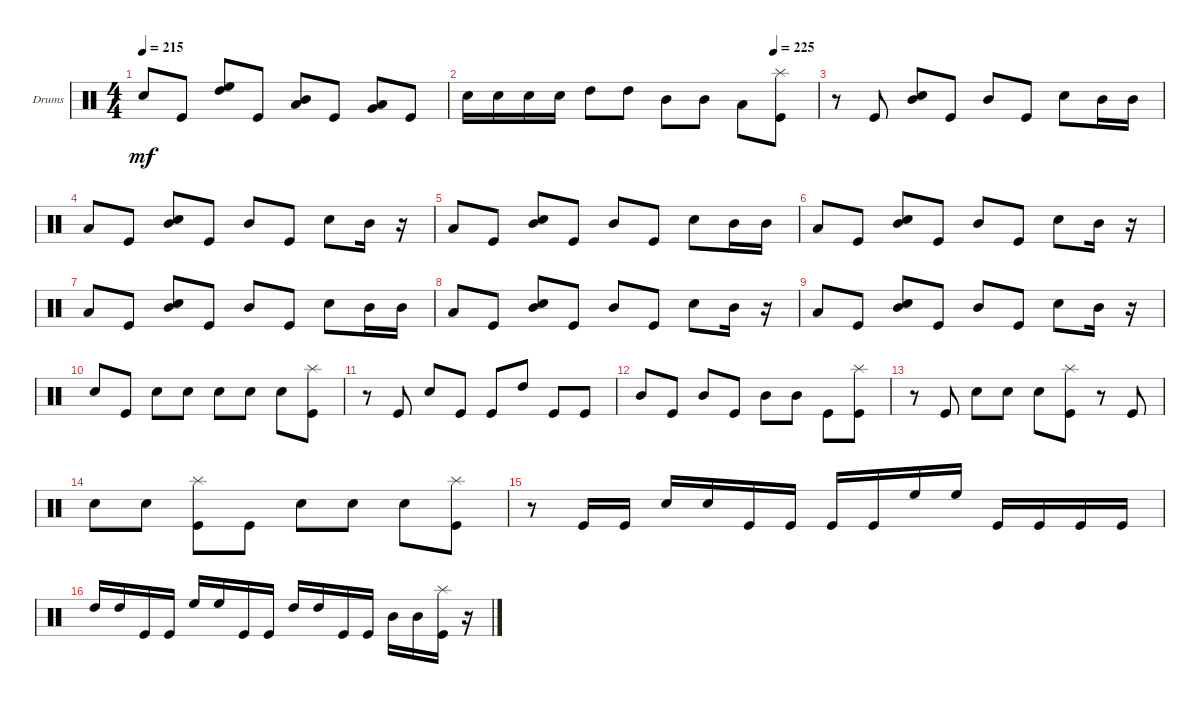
\bracketExtendMode groupsimilarinstruments
\firstSystemTrackNameOrientation horizontal
\otherSystemsTrackNameOrientation horizontal
\track ("Drumkit" "Drums") {instrument percussion}
\staff {score}
\articulation defaults
\ts (4 4)
\tempo 215
\clef neutral
\ks c "Snare (hit) 2".8{dy mf} "Kick (hit)".8
("High Tom (hit)" "High Floor Tom (hit)").8 "Kick (hit)".8 ("Mid Tom (hit)" "Low Tom (hit)").8 "Kick (hit)".8 ("Very Low Tom (hit)" "Low Tom (hit)").8 "Kick (hit)".8 |
\tempo (225 0.875)
"Snare (hit) 2".16 "Snare (hit) 2".16 "Snare (hit) 2".16 "Snare (hit) 2".16 "High Tom (hit)".8 "High Tom (hit)".8 "Mid Tom (hit)".8 "Mid Tom (hit)".8 "Low Tom (hit)".8 ("Kick (hit)" "Splash (hit)").8 |
r.8 "Kick (hit)".8 ("Snare (hit) 2" "Mid Tom (hit)").8 "Kick (hit)".8 "Mid Tom (hit)".8 "Kick (hit)".8 "Snare (hit) 2".8 "Mid Tom (hit)".16 "Mid Tom (hit)".16 |
"Low Tom (hit)".8 "Kick (hit)".8 ("Snare (hit) 2" "Mid Tom (hit)").8 "Kick (hit)".8 "Mid Tom (hit)".8 "Kick (hit)".8 "Snare (hit) 2".8 "Mid Tom (hit)".16 r.16 |
"Low Tom (hit)".8 "Kick (hit)".8 ("Snare (hit) 2" "Mid Tom (hit)").8 "Kick (hit)".8 "Mid Tom (hit)".8 "Kick (hit)".8 "Snare (hit) 2".8 "Mid Tom (hit)".16 "Mid Tom (hit)".16 |
"Low Tom (hit)".8 "Kick (hit)".8 ("Snare (hit) 2" "Mid Tom (hit)").8 "Kick (hit)".8 "Mid Tom (hit)".8 "Kick (hit)".8 "Snare (hit) 2".8 "Mid Tom (hit)".16 r.16 |
"Low Tom (hit)".8 "Kick (hit)".8 ("Snare (hit) 2" "Mid Tom (hit)").8 "Kick (hit)".8 "Mid Tom (hit)".8 "Kick (hit)".8 "Snare (hit) 2".8 "Mid Tom (hit)".16 "Mid Tom (hit)".16 |
"Low Tom (hit)".8 "Kick (hit)".8 ("Snare (hit) 2" "Mid Tom (hit)").8 "Kick (hit)".8 "Mid Tom (hit)".8 "Kick (hit)".8 "Snare (hit) 2".8 "Mid Tom (hit)".16 r.16 |
"Low Tom (hit)".8 "Kick (hit)".8 ("Snare (hit) 2" "Mid Tom (hit)").8 "Kick (hit)".8 "Mid Tom (hit)".8 "Kick (hit)".8 "Snare (hit) 2".8 "Mid Tom (hit)".16 r.16 |
"Snare (hit) 2".8 "Kick (hit)".8 "Snare (hit) 2".8 "Snare (hit) 2".8 "Snare (hit) 2".8 "Snare (hit) 2".8 "Snare (hit) 2".8 ("Kick (hit)" "Splash (hit)").8 |
r.8 "Kick (hit)".8 "Snare (hit) 2".8 "Kick (hit)".8 "Kick (hit)".8 "High Tom (hit)".8 "Kick (hit)".8 "Kick (hit)".8 |
"Mid Tom (hit)".8 "Kick (hit)".8 "Mid Tom (hit)".8 "Kick (hit)".8 "Mid Tom (hit)".8 "Mid Tom (hit)".8 "Kick (hit)".8 ("Kick (hit)" "Splash (hit)").8 |
r.8 "Kick (hit)".8 "Snare (hit) 2".8 "Snare (hit) 2".8 "Snare (hit) 2".8 ("Splash (hit)" "Kick (hit)").8 r.8 "Kick (hit)".8 |
"Snare (hit) 2".8 "Snare (hit) 2".8 ("Splash (hit)" "Kick (hit)").8 "Kick (hit)".8 "Snare (hit) 2".8 "Snare (hit) 2".8 "Snare (hit) 2".8 ("Kick (hit)" "Splash (hit)").8 |
r.8 "Kick (hit)".16 "Kick (hit)".16 "Snare (hit) 2".16 "Snare (hit) 2".16 "Kick (hit)".16 "Kick (hit)".16 "Kick (hit)".16 "Kick (hit)".16 "High Floor Tom (hit)".16 "High Floor Tom (hit)".16 "Kick (hit)".16 "Kick (hit)".16 "Kick (hit)".16 "Kick (hit)".16 |
"High Tom (hit)".16 "High Tom (hit)".16 "Kick (hit)".16 "Kick (hit)".16 "High Floor Tom (hit)".16 "High Floor Tom (hit)".16 "Kick (hit)".16 "Kick (hit)".16 "High Tom (hit)".16 "High Tom (hit)".16 "Kick (hit)".16 "Kick (hit)".16 "Mid Tom (hit)".16 "Mid Tom (hit)".16 ("Kick (hit)" "Splash (hit)").16 r.16
